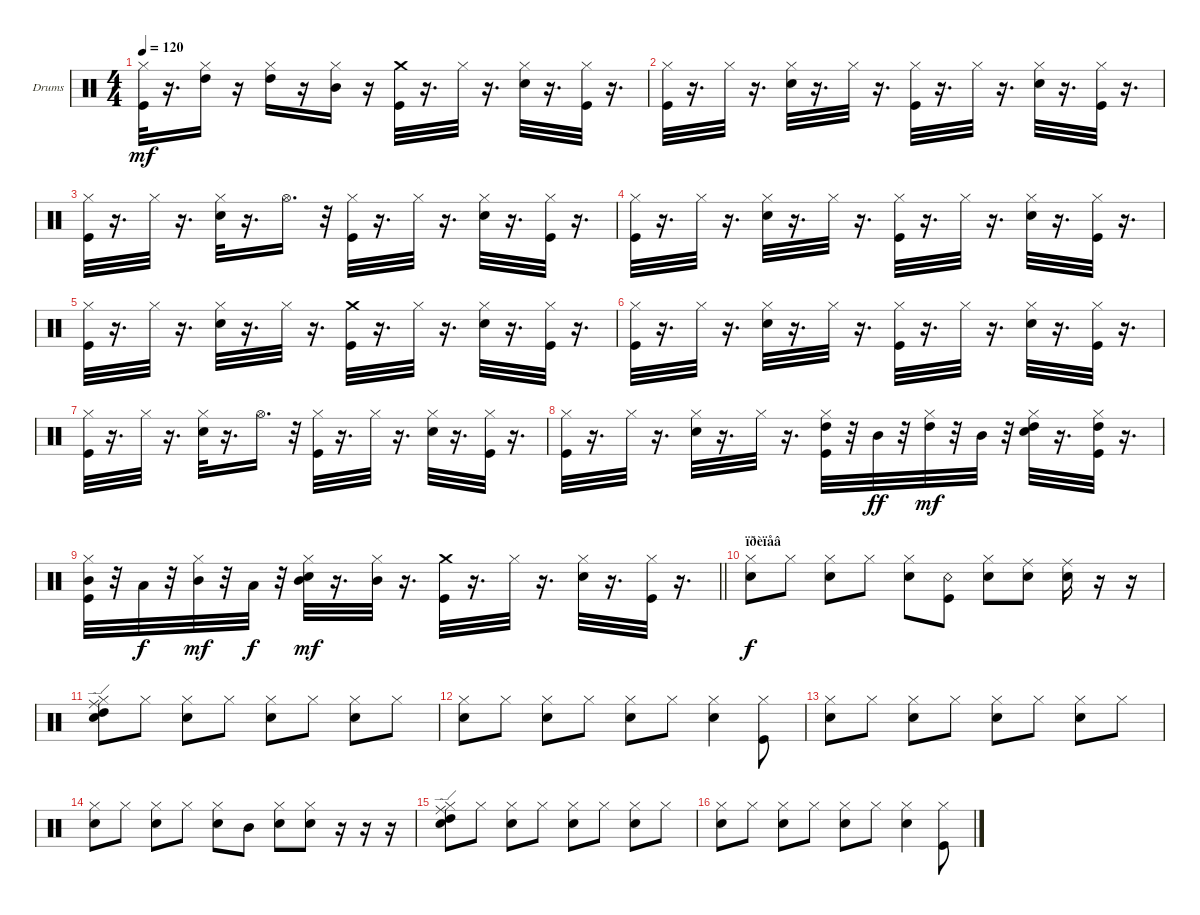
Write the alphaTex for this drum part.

\bracketExtendMode groupsimilarinstruments
\firstSystemTrackNameOrientation horizontal
\otherSystemsTrackNameOrientation horizontal
\track ("Drumkit" "Drums") {instrument percussion}
\staff {score}
\articulation defaults
\ts (4 4)
\tempo 120
\clef neutral
\ks c
("Hi-Hat (closed)" "Kick (hit)").32{dy mf} r.16{d} ("Hi-Hat (closed)" "High Tom (hit)").16 r.16 ("Hi-Hat (closed)" "High Tom (hit)").16 r.16 ("Hi-Hat (closed)" "Mid Tom (hit)").16 r.16 ("Crash medium (hit)" "Kick (hit)").32 r.16{d} "Hi-Hat (closed)".32 r.16{d} ("Hi-Hat (closed)" "Snare (hit) 2").32 r.16{d} ("Hi-Hat (closed)" "Kick (hit)").32 r.16{d} |
("Hi-Hat (closed)" "Kick (hit)").32 r.16{d} "Hi-Hat (closed)".32 r.16{d} ("Hi-Hat (closed)" "Snare (hit) 2").32 r.16{d} "Hi-Hat (closed)".32 r.16{d} ("Hi-Hat (closed)" "Kick (hit)").32 r.16{d} "Hi-Hat (closed)".32 r.16{d} ("Hi-Hat (closed)" "Snare (hit) 2").32 r.16{d} ("Hi-Hat (closed)" "Kick (hit)").32 r.16{d} |
("Hi-Hat (closed)" "Kick (hit)").32 r.16{d} "Hi-Hat (closed)".32 r.16{d} ("Hi-Hat (closed)" "Snare (hit) 2").32 r.16{d} "Hi-Hat (open)".16{d} r.32 ("Hi-Hat (closed)" "Kick (hit)").32 r.16{d} "Hi-Hat (closed)".32 r.16{d} ("Hi-Hat (closed)" "Snare (hit) 2").32 r.16{d} ("Hi-Hat (closed)" "Kick (hit)").32 r.16{d} |
("Hi-Hat (closed)" "Kick (hit)").32 r.16{d} "Hi-Hat (closed)".32 r.16{d} ("Hi-Hat (closed)" "Snare (hit) 2").32 r.16{d} "Hi-Hat (closed)".32 r.16{d} ("Hi-Hat (closed)" "Kick (hit)").32 r.16{d} "Hi-Hat (closed)".32 r.16{d} ("Hi-Hat (closed)" "Snare (hit) 2").32 r.16{d} ("Hi-Hat (closed)" "Kick (hit)").32 r.16{d} |
("Hi-Hat (closed)" "Kick (hit)").32 r.16{d} "Hi-Hat (closed)".32 r.16{d} ("Hi-Hat (closed)" "Snare (hit) 2").32 r.16{d} "Hi-Hat (closed)".32 r.16{d} ("Crash medium (hit)" "Kick (hit)").32 r.16{d} "Hi-Hat (closed)".32 r.16{d} ("Hi-Hat (closed)" "Snare (hit) 2").32 r.16{d} ("Hi-Hat (closed)" "Kick (hit)").32 r.16{d} |
("Hi-Hat (closed)" "Kick (hit)").32 r.16{d} "Hi-Hat (closed)".32 r.16{d} ("Hi-Hat (closed)" "Snare (hit) 2").32 r.16{d} "Hi-Hat (closed)".32 r.16{d} ("Hi-Hat (closed)" "Kick (hit)").32 r.16{d} "Hi-Hat (closed)".32 r.16{d} ("Hi-Hat (closed)" "Snare (hit) 2").32 r.16{d} ("Hi-Hat (closed)" "Kick (hit)").32 r.16{d} |
("Hi-Hat (closed)" "Kick (hit)").32 r.16{d} "Hi-Hat (closed)".32 r.16{d} ("Hi-Hat (closed)" "Snare (hit) 2").32 r.16{d} "Hi-Hat (open)".16{d} r.32 ("Hi-Hat (closed)" "Kick (hit)").32 r.16{d} "Hi-Hat (closed)".32 r.16{d} ("Hi-Hat (closed)" "Snare (hit) 2").32 r.16{d} ("Hi-Hat (closed)" "Kick (hit)").32 r.16{d} |
("Hi-Hat (closed)" "Kick (hit)").32 r.16{d} "Hi-Hat (closed)".32 r.16{d} ("Hi-Hat (closed)" "Snare (hit) 2").32 r.16{d} "Hi-Hat (closed)".32 r.16{d} ("Hi-Hat (closed)" "Kick (hit)" "High Tom (hit)").32 r.32 "Mid Tom (hit)".32{dy ff} r.32 ("Hi-Hat (closed)" "High Tom (hit)").32{dy mf} r.32 "Mid Tom (hit)".32 r.32 ("Hi-Hat (closed)" "Snare (hit) 2" "High Tom (hit)").32 r.16{d} ("Hi-Hat (closed)" "Kick (hit)" "High Tom (hit)").32 r.16{d} |
\barLineRight lightlight
("Hi-Hat (closed)" "Kick (hit)" "Mid Tom (hit)").32 r.32 "Low Tom (hit)".32{dy f} r.32 ("Hi-Hat (closed)" "Mid Tom (hit)").32{dy mf} r.32 "Low Tom (hit)".32{dy f} r.32 ("Hi-Hat (closed)" "Mid Tom (hit)" "Snare (hit) 2").32{dy mf} r.16{d} ("Hi-Hat (closed)" "Mid Tom (hit)").32 r.16{d} ("Crash medium (hit)" "Kick (hit)").32 r.16{d} "Hi-Hat (closed)".32 r.16{d} ("Hi-Hat (closed)" "Snare (hit) 2").32 r.16{d} ("Hi-Hat (closed)" "Kick (hit)").32 r.16{d} |
\section ("" "ïðèïåâ")
("Hi-Hat (closed)" "Snare (hit) 2").8{dy f} "Hi-Hat (closed)".8 ("Hi-Hat (closed)" "Snare (hit) 2").8 "Hi-Hat (closed)".8 ("Hi-Hat (closed)" "Snare (hit) 2").8 ("Snare (rim shot)" "Kick (hit)").8 ("Snare (hit) 2" "Hi-Hat (closed)").8 ("Snare (hit) 2" "Ride (middle)").8 ("Snare (hit) 2" "Ride (middle)").16 r.16 r.16 |
("Hi-Hat (closed)" "Snare (hit) 2" "Ride (edge)" "High Tom (hit)").8 "Hi-Hat (closed)".8 ("Hi-Hat (closed)" "Snare (hit) 2").8 "Hi-Hat (closed)".8 ("Hi-Hat (closed)" "Snare (hit) 2").8 "Hi-Hat (closed)".8 ("Hi-Hat (closed)" "Snare (hit) 2").8 "Hi-Hat (closed)".8 |
("Hi-Hat (closed)" "Snare (hit) 2").8 "Hi-Hat (closed)".8 ("Hi-Hat (closed)" "Snare (hit) 2").8 "Hi-Hat (closed)".8 ("Hi-Hat (closed)" "Snare (hit) 2").8 "Hi-Hat (closed)".8 ("Hi-Hat (closed)" "Snare (hit) 2").4 ("Hi-Hat (closed)" "Kick (hit)").8 |
("Hi-Hat (closed)" "Snare (hit) 2").8 "Hi-Hat (closed)".8 ("Hi-Hat (closed)" "Snare (hit) 2").8 "Hi-Hat (closed)".8 ("Hi-Hat (closed)" "Snare (hit) 2").8 "Hi-Hat (closed)".8 ("Hi-Hat (closed)" "Snare (hit) 2").8 "Hi-Hat (closed)".8 |
("Hi-Hat (closed)" "Snare (hit) 2").8 "Hi-Hat (closed)".8 ("Hi-Hat (closed)" "Snare (hit) 2").8 "Hi-Hat (closed)".8 ("Hi-Hat (closed)" "Snare (hit) 2").8 "Mid Tom (hit)".8 ("Snare (hit) 2" "Hi-Hat (closed)").8 ("Hi-Hat (closed)" "Snare (hit) 2").8 r.16 r.16 r.16 |
("Hi-Hat (closed)" "Snare (hit) 2" "Ride (edge)" "High Tom (hit)").8 "Hi-Hat (closed)".8 ("Hi-Hat (closed)" "Snare (hit) 2").8 "Hi-Hat (closed)".8 ("Hi-Hat (closed)" "Snare (hit) 2").8 "Hi-Hat (closed)".8 ("Hi-Hat (closed)" "Snare (hit) 2").8 "Hi-Hat (closed)".8 |
("Hi-Hat (closed)" "Snare (hit) 2").8 "Hi-Hat (closed)".8 ("Hi-Hat (closed)" "Snare (hit) 2").8 "Hi-Hat (closed)".8 ("Hi-Hat (closed)" "Snare (hit) 2").8 "Hi-Hat (closed)".8 ("Hi-Hat (closed)" "Snare (hit) 2").4 ("Hi-Hat (closed)" "Kick (hit)").8
